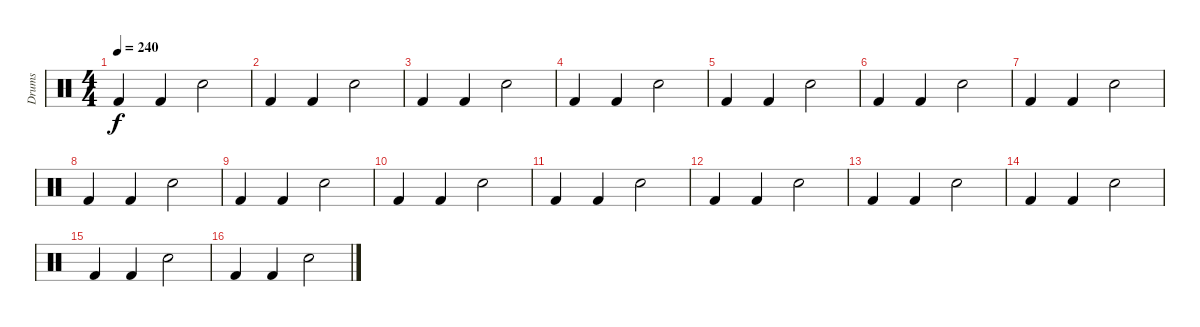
\track ("Drums" "Drums") {instrument percussion}
\staff {score}
\articulation defaults
\ts (4 4)
\tempo 240
\clef neutral
\ks c "Kick (hit) 2".4{dy f} "Kick (hit) 2".4 "Snare (hit) 2".2
|
"Kick (hit) 2".4 "Kick (hit) 2".4 "Snare (hit) 2".2 |
"Kick (hit) 2".4 "Kick (hit) 2".4 "Snare (hit) 2".2 |
"Kick (hit) 2".4 "Kick (hit) 2".4 "Snare (hit) 2".2 |
"Kick (hit) 2".4 "Kick (hit) 2".4 "Snare (hit) 2".2 |
"Kick (hit) 2".4 "Kick (hit) 2".4 "Snare (hit) 2".2 |
"Kick (hit) 2".4 "Kick (hit) 2".4 "Snare (hit) 2".2 |
"Kick (hit) 2".4 "Kick (hit) 2".4 "Snare (hit) 2".2 |
"Kick (hit) 2".4 "Kick (hit) 2".4 "Snare (hit) 2".2 |
"Kick (hit) 2".4 "Kick (hit) 2".4 "Snare (hit) 2".2 |
"Kick (hit) 2".4 "Kick (hit) 2".4 "Snare (hit) 2".2 |
"Kick (hit) 2".4 "Kick (hit) 2".4 "Snare (hit) 2".2 |
"Kick (hit) 2".4 "Kick (hit) 2".4 "Snare (hit) 2".2 |
"Kick (hit) 2".4 "Kick (hit) 2".4 "Snare (hit) 2".2 |
"Kick (hit) 2".4 "Kick (hit) 2".4 "Snare (hit) 2".2 |
"Kick (hit) 2".4 "Kick (hit) 2".4 "Snare (hit) 2".2
